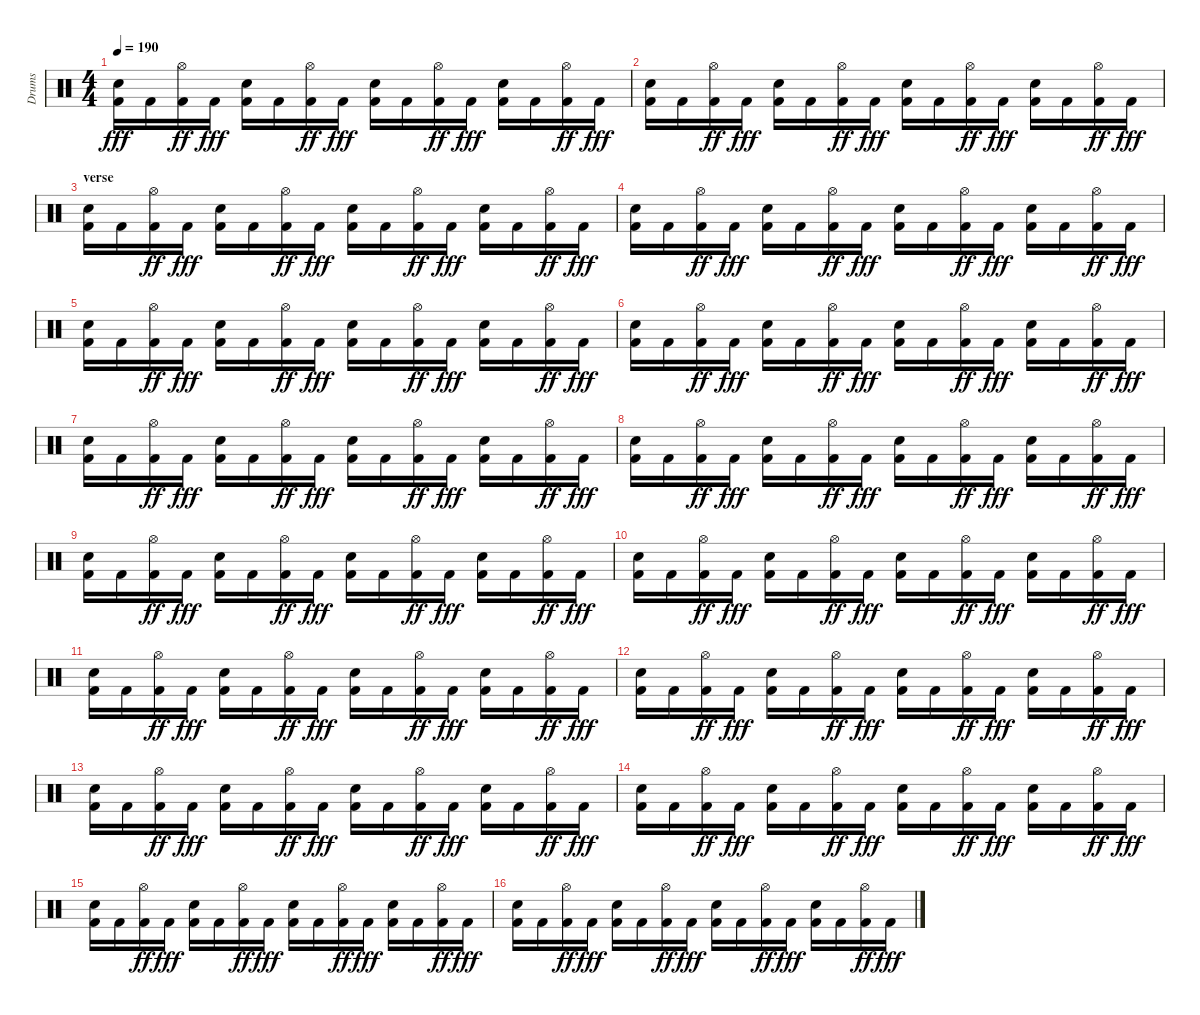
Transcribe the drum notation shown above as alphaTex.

\track ("Drums" "Drums") {instrument percussion}
\staff {score}
\articulation defaults
\ts (4 4)
\tempo 190
\clef neutral
\ks c
("Kick (hit) 2" "Electric Snare (hit)").16{dy fff} "Kick (hit) 2".16 ("Kick (hit) 2" "Hi-Hat (open)").16{dy ff} "Kick (hit) 2".16{dy fff} ("Kick (hit) 2" "Electric Snare (hit)").16 "Kick (hit) 2".16 ("Kick (hit) 2" "Hi-Hat (open)").16{dy ff} "Kick (hit) 2".16{dy fff} ("Kick (hit) 2" "Electric Snare (hit)").16 "Kick (hit) 2".16 ("Kick (hit) 2" "Hi-Hat (open)").16{dy ff} "Kick (hit) 2".16{dy fff} ("Kick (hit) 2" "Electric Snare (hit)").16 "Kick (hit) 2".16 ("Kick (hit) 2" "Hi-Hat (open)").16{dy ff} "Kick (hit) 2".16{dy fff} |
("Kick (hit) 2" "Electric Snare (hit)").16 "Kick (hit) 2".16 ("Kick (hit) 2" "Hi-Hat (open)").16{dy ff} "Kick (hit) 2".16{dy fff} ("Kick (hit) 2" "Electric Snare (hit)").16 "Kick (hit) 2".16 ("Kick (hit) 2" "Hi-Hat (open)").16{dy ff} "Kick (hit) 2".16{dy fff} ("Kick (hit) 2" "Electric Snare (hit)").16 "Kick (hit) 2".16 ("Kick (hit) 2" "Hi-Hat (open)").16{dy ff} "Kick (hit) 2".16{dy fff} ("Kick (hit) 2" "Electric Snare (hit)").16 "Kick (hit) 2".16 ("Kick (hit) 2" "Hi-Hat (open)").16{dy ff} "Kick (hit) 2".16{dy fff} |
\section ("" "verse")
("Kick (hit) 2" "Electric Snare (hit)").16 "Kick (hit) 2".16 ("Kick (hit) 2" "Hi-Hat (open)").16{dy ff} "Kick (hit) 2".16{dy fff} ("Kick (hit) 2" "Electric Snare (hit)").16 "Kick (hit) 2".16 ("Kick (hit) 2" "Hi-Hat (open)").16{dy ff} "Kick (hit) 2".16{dy fff} ("Kick (hit) 2" "Electric Snare (hit)").16 "Kick (hit) 2".16 ("Kick (hit) 2" "Hi-Hat (open)").16{dy ff} "Kick (hit) 2".16{dy fff} ("Kick (hit) 2" "Electric Snare (hit)").16 "Kick (hit) 2".16 ("Kick (hit) 2" "Hi-Hat (open)").16{dy ff} "Kick (hit) 2".16{dy fff} |
("Kick (hit) 2" "Electric Snare (hit)").16 "Kick (hit) 2".16 ("Kick (hit) 2" "Hi-Hat (open)").16{dy ff} "Kick (hit) 2".16{dy fff} ("Kick (hit) 2" "Electric Snare (hit)").16 "Kick (hit) 2".16 ("Kick (hit) 2" "Hi-Hat (open)").16{dy ff} "Kick (hit) 2".16{dy fff} ("Kick (hit) 2" "Electric Snare (hit)").16 "Kick (hit) 2".16 ("Kick (hit) 2" "Hi-Hat (open)").16{dy ff} "Kick (hit) 2".16{dy fff} ("Kick (hit) 2" "Electric Snare (hit)").16 "Kick (hit) 2".16 ("Kick (hit) 2" "Hi-Hat (open)").16{dy ff} "Kick (hit) 2".16{dy fff} |
("Kick (hit) 2" "Electric Snare (hit)").16 "Kick (hit) 2".16 ("Kick (hit) 2" "Hi-Hat (open)").16{dy ff} "Kick (hit) 2".16{dy fff} ("Kick (hit) 2" "Electric Snare (hit)").16 "Kick (hit) 2".16 ("Kick (hit) 2" "Hi-Hat (open)").16{dy ff} "Kick (hit) 2".16{dy fff} ("Kick (hit) 2" "Electric Snare (hit)").16 "Kick (hit) 2".16 ("Kick (hit) 2" "Hi-Hat (open)").16{dy ff} "Kick (hit) 2".16{dy fff} ("Kick (hit) 2" "Electric Snare (hit)").16 "Kick (hit) 2".16 ("Kick (hit) 2" "Hi-Hat (open)").16{dy ff} "Kick (hit) 2".16{dy fff} |
("Kick (hit) 2" "Electric Snare (hit)").16 "Kick (hit) 2".16 ("Kick (hit) 2" "Hi-Hat (open)").16{dy ff} "Kick (hit) 2".16{dy fff} ("Kick (hit) 2" "Electric Snare (hit)").16 "Kick (hit) 2".16 ("Kick (hit) 2" "Hi-Hat (open)").16{dy ff} "Kick (hit) 2".16{dy fff} ("Kick (hit) 2" "Electric Snare (hit)").16 "Kick (hit) 2".16 ("Kick (hit) 2" "Hi-Hat (open)").16{dy ff} "Kick (hit) 2".16{dy fff} ("Kick (hit) 2" "Electric Snare (hit)").16 "Kick (hit) 2".16 ("Kick (hit) 2" "Hi-Hat (open)").16{dy ff} "Kick (hit) 2".16{dy fff} |
("Kick (hit) 2" "Electric Snare (hit)").16 "Kick (hit) 2".16 ("Kick (hit) 2" "Hi-Hat (open)").16{dy ff} "Kick (hit) 2".16{dy fff} ("Kick (hit) 2" "Electric Snare (hit)").16 "Kick (hit) 2".16 ("Kick (hit) 2" "Hi-Hat (open)").16{dy ff} "Kick (hit) 2".16{dy fff} ("Kick (hit) 2" "Electric Snare (hit)").16 "Kick (hit) 2".16 ("Kick (hit) 2" "Hi-Hat (open)").16{dy ff} "Kick (hit) 2".16{dy fff} ("Kick (hit) 2" "Electric Snare (hit)").16 "Kick (hit) 2".16 ("Kick (hit) 2" "Hi-Hat (open)").16{dy ff} "Kick (hit) 2".16{dy fff} |
("Kick (hit) 2" "Electric Snare (hit)").16 "Kick (hit) 2".16 ("Kick (hit) 2" "Hi-Hat (open)").16{dy ff} "Kick (hit) 2".16{dy fff} ("Kick (hit) 2" "Electric Snare (hit)").16 "Kick (hit) 2".16 ("Kick (hit) 2" "Hi-Hat (open)").16{dy ff} "Kick (hit) 2".16{dy fff} ("Kick (hit) 2" "Electric Snare (hit)").16 "Kick (hit) 2".16 ("Kick (hit) 2" "Hi-Hat (open)").16{dy ff} "Kick (hit) 2".16{dy fff} ("Kick (hit) 2" "Electric Snare (hit)").16 "Kick (hit) 2".16 ("Kick (hit) 2" "Hi-Hat (open)").16{dy ff} "Kick (hit) 2".16{dy fff} |
("Kick (hit) 2" "Electric Snare (hit)").16 "Kick (hit) 2".16 ("Kick (hit) 2" "Hi-Hat (open)").16{dy ff} "Kick (hit) 2".16{dy fff} ("Kick (hit) 2" "Electric Snare (hit)").16 "Kick (hit) 2".16 ("Kick (hit) 2" "Hi-Hat (open)").16{dy ff} "Kick (hit) 2".16{dy fff} ("Kick (hit) 2" "Electric Snare (hit)").16 "Kick (hit) 2".16 ("Kick (hit) 2" "Hi-Hat (open)").16{dy ff} "Kick (hit) 2".16{dy fff} ("Kick (hit) 2" "Electric Snare (hit)").16 "Kick (hit) 2".16 ("Kick (hit) 2" "Hi-Hat (open)").16{dy ff} "Kick (hit) 2".16{dy fff} |
("Kick (hit) 2" "Electric Snare (hit)").16 "Kick (hit) 2".16 ("Kick (hit) 2" "Hi-Hat (open)").16{dy ff} "Kick (hit) 2".16{dy fff} ("Kick (hit) 2" "Electric Snare (hit)").16 "Kick (hit) 2".16 ("Kick (hit) 2" "Hi-Hat (open)").16{dy ff} "Kick (hit) 2".16{dy fff} ("Kick (hit) 2" "Electric Snare (hit)").16 "Kick (hit) 2".16 ("Kick (hit) 2" "Hi-Hat (open)").16{dy ff} "Kick (hit) 2".16{dy fff} ("Kick (hit) 2" "Electric Snare (hit)").16 "Kick (hit) 2".16 ("Kick (hit) 2" "Hi-Hat (open)").16{dy ff} "Kick (hit) 2".16{dy fff} |
("Kick (hit) 2" "Electric Snare (hit)").16 "Kick (hit) 2".16 ("Kick (hit) 2" "Hi-Hat (open)").16{dy ff} "Kick (hit) 2".16{dy fff} ("Kick (hit) 2" "Electric Snare (hit)").16 "Kick (hit) 2".16 ("Kick (hit) 2" "Hi-Hat (open)").16{dy ff} "Kick (hit) 2".16{dy fff} ("Kick (hit) 2" "Electric Snare (hit)").16 "Kick (hit) 2".16 ("Kick (hit) 2" "Hi-Hat (open)").16{dy ff} "Kick (hit) 2".16{dy fff} ("Kick (hit) 2" "Electric Snare (hit)").16 "Kick (hit) 2".16 ("Kick (hit) 2" "Hi-Hat (open)").16{dy ff} "Kick (hit) 2".16{dy fff} |
("Kick (hit) 2" "Electric Snare (hit)").16 "Kick (hit) 2".16 ("Kick (hit) 2" "Hi-Hat (open)").16{dy ff} "Kick (hit) 2".16{dy fff} ("Kick (hit) 2" "Electric Snare (hit)").16 "Kick (hit) 2".16 ("Kick (hit) 2" "Hi-Hat (open)").16{dy ff} "Kick (hit) 2".16{dy fff} ("Kick (hit) 2" "Electric Snare (hit)").16 "Kick (hit) 2".16 ("Kick (hit) 2" "Hi-Hat (open)").16{dy ff} "Kick (hit) 2".16{dy fff} ("Kick (hit) 2" "Electric Snare (hit)").16 "Kick (hit) 2".16 ("Kick (hit) 2" "Hi-Hat (open)").16{dy ff} "Kick (hit) 2".16{dy fff} |
("Kick (hit) 2" "Electric Snare (hit)").16 "Kick (hit) 2".16 ("Kick (hit) 2" "Hi-Hat (open)").16{dy ff} "Kick (hit) 2".16{dy fff} ("Kick (hit) 2" "Electric Snare (hit)").16 "Kick (hit) 2".16 ("Kick (hit) 2" "Hi-Hat (open)").16{dy ff} "Kick (hit) 2".16{dy fff} ("Kick (hit) 2" "Electric Snare (hit)").16 "Kick (hit) 2".16 ("Kick (hit) 2" "Hi-Hat (open)").16{dy ff} "Kick (hit) 2".16{dy fff} ("Kick (hit) 2" "Electric Snare (hit)").16 "Kick (hit) 2".16 ("Kick (hit) 2" "Hi-Hat (open)").16{dy ff} "Kick (hit) 2".16{dy fff} |
("Kick (hit) 2" "Electric Snare (hit)").16 "Kick (hit) 2".16 ("Kick (hit) 2" "Hi-Hat (open)").16{dy ff} "Kick (hit) 2".16{dy fff} ("Kick (hit) 2" "Electric Snare (hit)").16 "Kick (hit) 2".16 ("Kick (hit) 2" "Hi-Hat (open)").16{dy ff} "Kick (hit) 2".16{dy fff} ("Kick (hit) 2" "Electric Snare (hit)").16 "Kick (hit) 2".16 ("Kick (hit) 2" "Hi-Hat (open)").16{dy ff} "Kick (hit) 2".16{dy fff} ("Kick (hit) 2" "Electric Snare (hit)").16 "Kick (hit) 2".16 ("Kick (hit) 2" "Hi-Hat (open)").16{dy ff} "Kick (hit) 2".16{dy fff} |
("Kick (hit) 2" "Electric Snare (hit)").16 "Kick (hit) 2".16 ("Kick (hit) 2" "Hi-Hat (open)").16{dy ff} "Kick (hit) 2".16{dy fff} ("Kick (hit) 2" "Electric Snare (hit)").16 "Kick (hit) 2".16 ("Kick (hit) 2" "Hi-Hat (open)").16{dy ff} "Kick (hit) 2".16{dy fff} ("Kick (hit) 2" "Electric Snare (hit)").16 "Kick (hit) 2".16 ("Kick (hit) 2" "Hi-Hat (open)").16{dy ff} "Kick (hit) 2".16{dy fff} ("Kick (hit) 2" "Electric Snare (hit)").16 "Kick (hit) 2".16 ("Kick (hit) 2" "Hi-Hat (open)").16{dy ff} "Kick (hit) 2".16{dy fff} |
("Kick (hit) 2" "Electric Snare (hit)").16 "Kick (hit) 2".16 ("Kick (hit) 2" "Hi-Hat (open)").16{dy ff} "Kick (hit) 2".16{dy fff} ("Kick (hit) 2" "Electric Snare (hit)").16 "Kick (hit) 2".16 ("Kick (hit) 2" "Hi-Hat (open)").16{dy ff} "Kick (hit) 2".16{dy fff} ("Kick (hit) 2" "Electric Snare (hit)").16 "Kick (hit) 2".16 ("Kick (hit) 2" "Hi-Hat (open)").16{dy ff} "Kick (hit) 2".16{dy fff} ("Kick (hit) 2" "Electric Snare (hit)").16 "Kick (hit) 2".16 ("Kick (hit) 2" "Hi-Hat (open)").16{dy ff} "Kick (hit) 2".16{dy fff}
